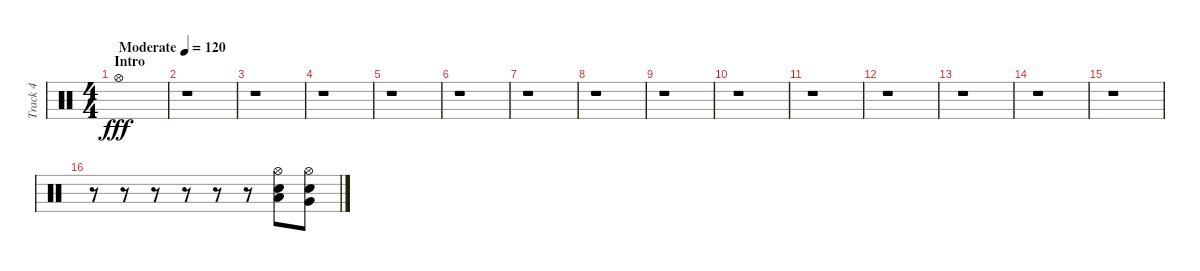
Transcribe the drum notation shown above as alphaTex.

\track ("Track 4" "Track 4") {instrument percussion}
\staff {score}
\articulation defaults
\ts (4 4)
\section ("" "Intro")
\tempo (120 "Moderate")
\clef neutral
\ks c "Hi-Hat (open)".1{dy fff}
|
r.1 |
r.1 |
r.1 |
r.1 |
r.1 |
r.1 |
r.1 |
r.1 |
r.1 |
r.1 |
r.1 |
r.1 |
r.1 |
r.1 |
r.8 r.8 r.8 r.8 r.8 r.8 ("Low Tom (hit)" "Hi-Hat (open)" "Electric Snare (hit)").8 ("Hi-Hat (open)" "Very Low Tom (hit)" "Snare (hit) 2").8
